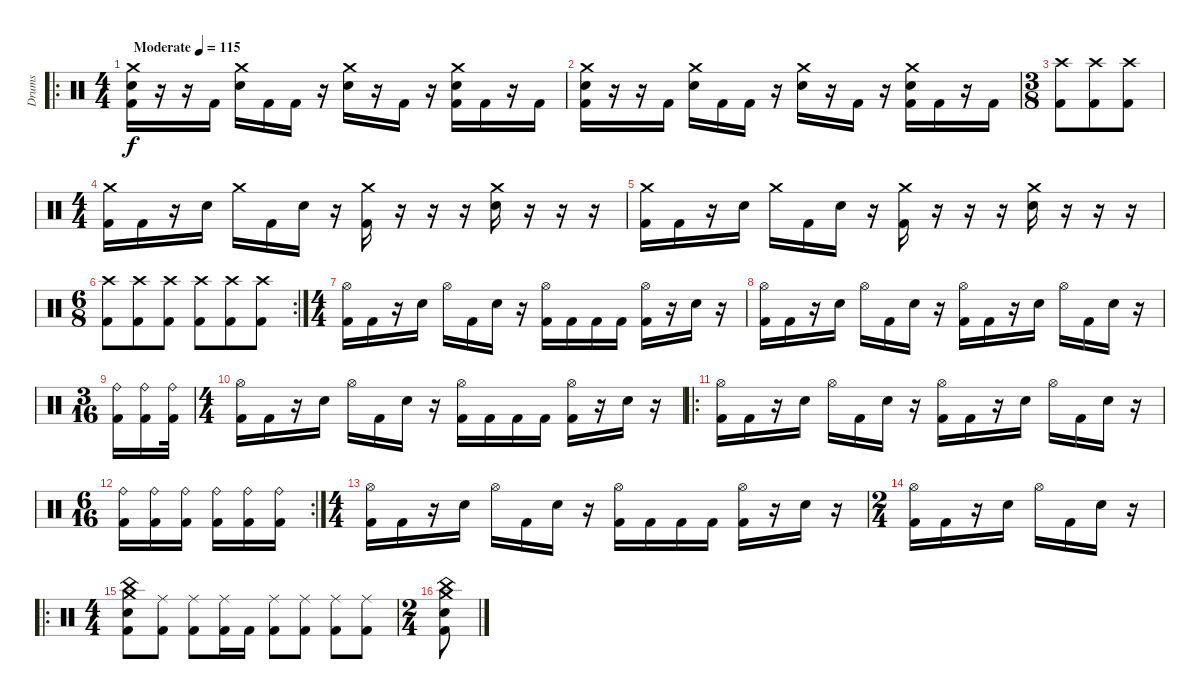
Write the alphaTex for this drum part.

\track ("Drums" "Drums") {instrument percussion}
\staff {score}
\articulation defaults
\ro
\ts (4 4)
\tempo (115 "Moderate")
\clef neutral
\ks c
("Crash medium (hit)" "Electric Snare (hit)" "Kick (hit) 2").16{dy f} r.16 r.16 "Kick (hit) 2".16 ("Crash medium (hit)" "Electric Snare (hit)").16 "Kick (hit) 2".16 "Kick (hit) 2".16 r.16 ("Crash medium (hit)" "Electric Snare (hit)").16 r.16 "Kick (hit) 2".16 r.16 ("Crash medium (hit)" "Electric Snare (hit)" "Kick (hit) 2").16 "Kick (hit) 2".16 r.16 "Kick (hit) 2".16 |
("Crash medium (hit)" "Electric Snare (hit)" "Kick (hit) 2").16 r.16 r.16 "Kick (hit) 2".16 ("Crash medium (hit)" "Electric Snare (hit)").16 "Kick (hit) 2".16 "Kick (hit) 2".16 r.16 ("Crash medium (hit)" "Electric Snare (hit)").16 r.16 "Kick (hit) 2".16 r.16 ("Crash medium (hit)" "Electric Snare (hit)" "Kick (hit) 2").16 "Kick (hit) 2".16 r.16 "Kick (hit) 2".16 |
\ts (3 8)
("Crash high (hit)" "Kick (hit) 2").8 ("Crash high (hit)" "Kick (hit) 2").8 ("Crash high (hit)" "Kick (hit) 2").8 |
\ts (4 4)
("Crash medium (hit)" "Kick (hit) 2").16 "Kick (hit) 2".16 r.16 "Electric Snare (hit)".16 "Crash medium (hit)".16 "Kick (hit) 2".16 "Electric Snare (hit)".16 r.16 ("Crash medium (hit)" "Kick (hit) 2").16 r.16 r.16 r.16 ("Crash medium (hit)" "Electric Snare (hit)").16 r.16 r.16 r.16 |
("Crash medium (hit)" "Kick (hit) 2").16 "Kick (hit) 2".16 r.16 "Electric Snare (hit)".16 "Crash medium (hit)".16 "Kick (hit) 2".16 "Electric Snare (hit)".16 r.16 ("Crash medium (hit)" "Kick (hit) 2").16 r.16 r.16 r.16 ("Crash medium (hit)" "Electric Snare (hit)").16 r.16 r.16 r.16 |
\rc 2
\ts (6 8)
("Crash high (hit)" "Kick (hit) 2").8 ("Crash high (hit)" "Kick (hit) 2").8 ("Crash high (hit)" "Kick (hit) 2").8 ("Crash high (hit)" "Kick (hit) 2").8 ("Crash high (hit)" "Kick (hit) 2").8 ("Crash high (hit)" "Kick (hit) 2").8 |
\ts (4 4)
("Hi-Hat (open)" "Kick (hit) 2").16 "Kick (hit) 2".16 r.16 "Electric Snare (hit)".16 "Hi-Hat (open)".16 "Kick (hit) 2".16 "Electric Snare (hit)".16 r.16 ("Hi-Hat (open)" "Kick (hit) 2").16 "Kick (hit) 2".16 "Kick (hit) 2".16 "Kick (hit) 2".16 ("Hi-Hat (open)" "Kick (hit) 2").16 r.16 "Electric Snare (hit)".16 r.16 |
("Hi-Hat (open)" "Kick (hit) 2").16 "Kick (hit) 2".16 r.16 "Electric Snare (hit)".16 "Hi-Hat (open)".16 "Kick (hit) 2".16 "Electric Snare (hit)".16 r.16 ("Hi-Hat (open)" "Kick (hit) 2").16 "Kick (hit) 2".16 r.16 "Electric Snare (hit)".16 "Hi-Hat (open)".16 "Kick (hit) 2".16 "Electric Snare (hit)".16 r.16 |
\ts (3 16)
("Ride (bell)" "Kick (hit) 2").16 ("Ride (bell)" "Kick (hit) 2").16 ("Ride (bell)" "Kick (hit) 2").32 |
\ts (4 4)
("Hi-Hat (open)" "Kick (hit) 2").16 "Kick (hit) 2".16 r.16 "Electric Snare (hit)".16 "Hi-Hat (open)".16 "Kick (hit) 2".16 "Electric Snare (hit)".16 r.16 ("Hi-Hat (open)" "Kick (hit) 2").16 "Kick (hit) 2".16 "Kick (hit) 2".16 "Kick (hit) 2".16 ("Hi-Hat (open)" "Kick (hit) 2").16 r.16 "Electric Snare (hit)".16 r.16 |
\ro
("Hi-Hat (open)" "Kick (hit) 2").16 "Kick (hit) 2".16 r.16 "Electric Snare (hit)".16 "Hi-Hat (open)".16 "Kick (hit) 2".16 "Electric Snare (hit)".16 r.16 ("Hi-Hat (open)" "Kick (hit) 2").16 "Kick (hit) 2".16 r.16 "Electric Snare (hit)".16 "Hi-Hat (open)".16 "Kick (hit) 2".16 "Electric Snare (hit)".16 r.16 |
\rc 2
\ts (6 16)
("Ride (bell)" "Kick (hit) 2").16 ("Ride (bell)" "Kick (hit) 2").16 ("Ride (bell)" "Kick (hit) 2").16 ("Ride (bell)" "Kick (hit) 2").16 ("Ride (bell)" "Kick (hit) 2").16 ("Ride (bell)" "Kick (hit) 2").16 |
\ts (4 4)
("Hi-Hat (open)" "Kick (hit) 2").16 "Kick (hit) 2".16 r.16 "Electric Snare (hit)".16 "Hi-Hat (open)".16 "Kick (hit) 2".16 "Electric Snare (hit)".16 r.16 ("Hi-Hat (open)" "Kick (hit) 2").16 "Kick (hit) 2".16 "Kick (hit) 2".16 "Kick (hit) 2".16 ("Hi-Hat (open)" "Kick (hit) 2").16 r.16 "Electric Snare (hit)".16 r.16 |
\ts (2 4)
("Hi-Hat (open)" "Kick (hit) 2").16 "Kick (hit) 2".16 r.16 "Electric Snare (hit)".16 "Hi-Hat (open)".16 "Kick (hit) 2".16 "Electric Snare (hit)".16 r.16 |
\ro
\ts (4 4)
("Crash medium (hit)" "China (hit)" "Electric Snare (hit)" "Kick (hit) 2").8 ("Ride (middle)" "Kick (hit) 2").8 ("Ride (middle)" "Kick (hit) 2").8 ("Ride (middle)" "Kick (hit) 2").16 "Kick (hit) 2".16 ("Ride (middle)" "Kick (hit) 2").8 ("Ride (middle)" "Kick (hit) 2").8 ("Ride (middle)" "Kick (hit) 2").8 ("Ride (middle)" "Kick (hit) 2").8 |
\ts (2 4)
("Crash medium (hit)" "China (hit)" "Electric Snare (hit)" "Kick (hit) 2").8
